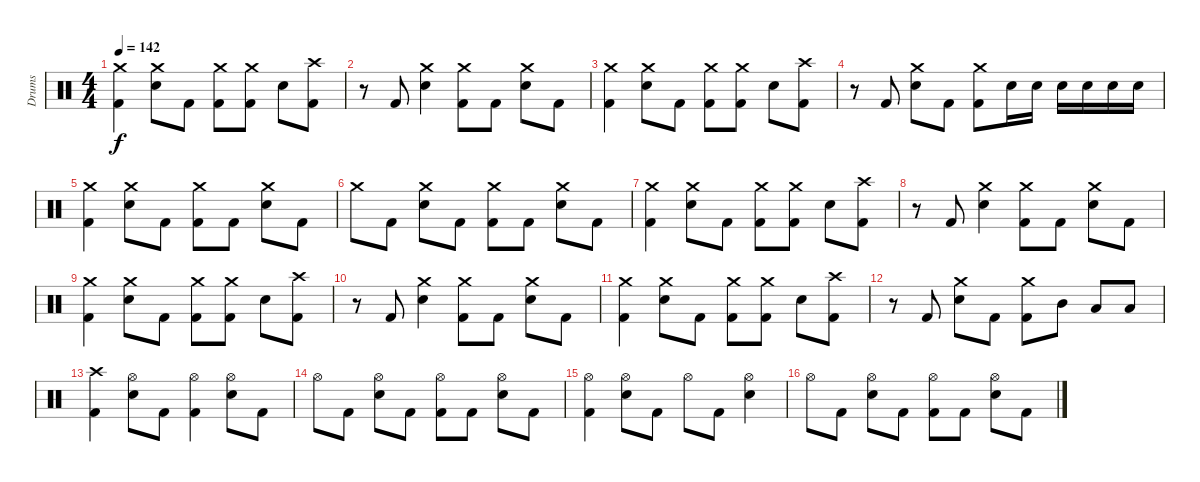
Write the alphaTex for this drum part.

\track ("Drums" "Drums") {instrument percussion}
\staff {score}
\articulation defaults
\ts (4 4)
\tempo 142
\clef neutral
\ks c
("Crash medium (hit)" "Kick (hit) 2").4{dy f} ("Crash medium (hit)" "Electric Snare (hit)").8 "Kick (hit) 2".8 ("Crash medium (hit)" "Kick (hit) 2").8 ("Crash medium (hit)" "Kick (hit) 2").8 "Electric Snare (hit)".8 ("Crash high (hit)" "Kick (hit) 2").8 |
r.8 "Kick (hit) 2".8 ("Crash medium (hit)" "Electric Snare (hit)").4 ("Crash medium (hit)" "Kick (hit) 2").8 "Kick (hit) 2".8 ("Crash medium (hit)" "Electric Snare (hit)").8 "Kick (hit) 2".8 |
("Crash medium (hit)" "Kick (hit) 2").4 ("Crash medium (hit)" "Electric Snare (hit)").8 "Kick (hit) 2".8 ("Crash medium (hit)" "Kick (hit) 2").8 ("Crash medium (hit)" "Kick (hit) 2").8 "Electric Snare (hit)".8 ("Crash high (hit)" "Kick (hit) 2").8 |
r.8 "Kick (hit) 2".8 ("Crash medium (hit)" "Electric Snare (hit)").8 "Kick (hit) 2".8 ("Crash medium (hit)" "Kick (hit) 2").8 "Electric Snare (hit)".16 "Electric Snare (hit)".16 "Electric Snare (hit)".16 "Electric Snare (hit)".16 "Electric Snare (hit)".16 "Electric Snare (hit)".16 |
("Crash medium (hit)" "Kick (hit) 2").4 ("Crash medium (hit)" "Electric Snare (hit)").8 "Kick (hit) 2".8 ("Crash medium (hit)" "Kick (hit) 2").8 "Kick (hit) 2".8 ("Crash medium (hit)" "Electric Snare (hit)").8 "Kick (hit) 2".8 |
"Crash medium (hit)".8 "Kick (hit) 2".8 ("Crash medium (hit)" "Electric Snare (hit)").8 "Kick (hit) 2".8 ("Crash medium (hit)" "Kick (hit) 2").8 "Kick (hit) 2".8 ("Crash medium (hit)" "Electric Snare (hit)").8 "Kick (hit) 2".8 |
("Crash medium (hit)" "Kick (hit) 2").4 ("Crash medium (hit)" "Electric Snare (hit)").8 "Kick (hit) 2".8 ("Crash medium (hit)" "Kick (hit) 2").8 ("Crash medium (hit)" "Kick (hit) 2").8 "Electric Snare (hit)".8 ("Crash high (hit)" "Kick (hit) 2").8 |
r.8 "Kick (hit) 2".8 ("Crash medium (hit)" "Electric Snare (hit)").4 ("Crash medium (hit)" "Kick (hit) 2").8 "Kick (hit) 2".8 ("Crash medium (hit)" "Electric Snare (hit)").8 "Kick (hit) 2".8 |
("Crash medium (hit)" "Kick (hit) 2").4 ("Crash medium (hit)" "Electric Snare (hit)").8 "Kick (hit) 2".8 ("Crash medium (hit)" "Kick (hit) 2").8 ("Crash medium (hit)" "Kick (hit) 2").8 "Electric Snare (hit)".8 ("Crash high (hit)" "Kick (hit) 2").8 |
r.8 "Kick (hit) 2".8 ("Crash medium (hit)" "Electric Snare (hit)").4 ("Crash medium (hit)" "Kick (hit) 2").8 "Kick (hit) 2".8 ("Crash medium (hit)" "Electric Snare (hit)").8 "Kick (hit) 2".8 |
("Crash medium (hit)" "Kick (hit) 2").4 ("Crash medium (hit)" "Electric Snare (hit)").8 "Kick (hit) 2".8 ("Crash medium (hit)" "Kick (hit) 2").8 ("Crash medium (hit)" "Kick (hit) 2").8 "Electric Snare (hit)".8 ("Crash high (hit)" "Kick (hit) 2").8 |
r.8 "Kick (hit) 2".8 ("Crash medium (hit)" "Electric Snare (hit)").8 "Kick (hit) 2".8 ("Crash medium (hit)" "Kick (hit) 2").8 "Mid Tom (hit)".8 "Low Floor Tom (hit)".8 "Low Floor Tom (hit)".8 |
("Crash high (hit)" "Kick (hit) 2").4 ("Hi-Hat (open)" "Electric Snare (hit)").8 "Kick (hit) 2".8 ("Hi-Hat (open)" "Kick (hit) 2").4 ("Hi-Hat (open)" "Electric Snare (hit)").8 "Kick (hit) 2".8 |
"Hi-Hat (open)".8 "Kick (hit) 2".8 ("Hi-Hat (open)" "Electric Snare (hit)").8 "Kick (hit) 2".8 ("Hi-Hat (open)" "Kick (hit) 2").8 "Kick (hit) 2".8 ("Hi-Hat (open)" "Electric Snare (hit)").8 "Kick (hit) 2".8 |
("Hi-Hat (open)" "Kick (hit) 2").4 ("Hi-Hat (open)" "Electric Snare (hit)").8 "Kick (hit) 2".8 "Hi-Hat (open)".8 "Kick (hit) 2".8 ("Hi-Hat (open)" "Electric Snare (hit)").4 |
"Hi-Hat (open)".8 "Kick (hit) 2".8 ("Hi-Hat (open)" "Electric Snare (hit)").8 "Kick (hit) 2".8 ("Hi-Hat (open)" "Kick (hit) 2").8 "Kick (hit) 2".8 ("Hi-Hat (open)" "Electric Snare (hit)").8 "Kick (hit) 2".8
